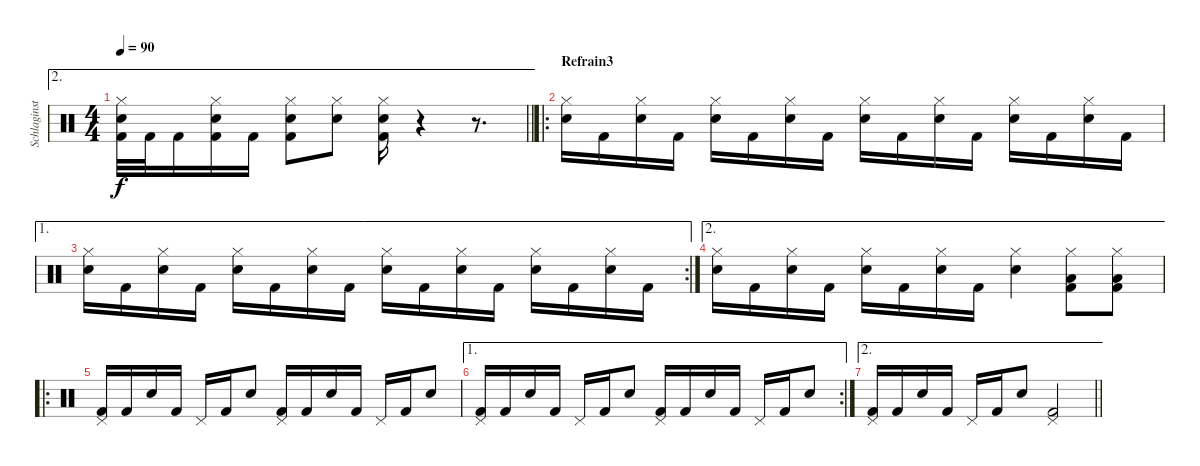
\track ("Schlaginstrumente - Auswahl" "Schlaginst") {instrument percussion}
\staff {score}
\articulation defaults
\ae 2
\ts (4 4)
\tempo 90
\clef neutral
\barLineRight lightlight
\ks c
("Hi-Hat (closed)" "Snare (hit) 2" "Kick (hit) 2").32{dy f} "Kick (hit) 2".32 "Kick (hit) 2".16 ("Hi-Hat (closed)" "Snare (hit) 2" "Kick (hit) 2").16 "Kick (hit) 2".16 ("Hi-Hat (closed)" "Snare (hit) 2" "Kick (hit) 2").8 ("Hi-Hat (closed)" "Snare (hit) 2").8 ("Hi-Hat (closed)" "Snare (hit) 2" "Kick (hit) 2").16 r.4 r.8{d} |
\ro
\section ("" "Refrain3")
("Hi-Hat (closed)" "Snare (hit) 2").16 "Kick (hit) 2".16 ("Hi-Hat (closed)" "Snare (hit) 2").16 "Kick (hit) 2".16 ("Hi-Hat (closed)" "Snare (hit) 2").16 "Kick (hit) 2".16 ("Hi-Hat (closed)" "Snare (hit) 2").16 "Kick (hit) 2".16 ("Hi-Hat (closed)" "Snare (hit) 2").16 "Kick (hit) 2".16 ("Hi-Hat (closed)" "Snare (hit) 2").16 "Kick (hit) 2".16 ("Hi-Hat (closed)" "Snare (hit) 2").16 "Kick (hit) 2".16 ("Hi-Hat (closed)" "Snare (hit) 2").16 "Kick (hit) 2".16 |
\ae 1
\rc 2
("Hi-Hat (closed)" "Snare (hit) 2").16 "Kick (hit) 2".16 ("Hi-Hat (closed)" "Snare (hit) 2").16 "Kick (hit) 2".16 ("Hi-Hat (closed)" "Snare (hit) 2").16 "Kick (hit) 2".16 ("Hi-Hat (closed)" "Snare (hit) 2").16 "Kick (hit) 2".16 ("Hi-Hat (closed)" "Snare (hit) 2").16 "Kick (hit) 2".16 ("Hi-Hat (closed)" "Snare (hit) 2").16 "Kick (hit) 2".16 ("Hi-Hat (closed)" "Snare (hit) 2").16 "Kick (hit) 2".16 ("Hi-Hat (closed)" "Snare (hit) 2").16 "Kick (hit) 2".16 |
\ae 2
("Hi-Hat (closed)" "Snare (hit) 2").16 "Kick (hit) 2".16 ("Hi-Hat (closed)" "Snare (hit) 2").16 "Kick (hit) 2".16 ("Hi-Hat (closed)" "Snare (hit) 2").16 "Kick (hit) 2".16 ("Hi-Hat (closed)" "Snare (hit) 2").16 "Kick (hit) 2".16 ("Hi-Hat (closed)" "Snare (hit) 2").4 ("Hi-Hat (closed)" "Low Floor Tom (hit)" "Kick (hit) 2").8 ("Hi-Hat (closed)" "Low Floor Tom (hit)" "Kick (hit) 2").8 |
\ro
("Pedal Hi-Hat (hit)" "Kick (hit) 2").16 "Kick (hit) 2".16 "Snare (hit) 2".16 "Kick (hit) 2".16 "Pedal Hi-Hat (hit)".16 "Kick (hit) 2".16 "Snare (hit) 2".8 ("Pedal Hi-Hat (hit)" "Kick (hit) 2").16 "Kick (hit) 2".16 "Snare (hit) 2".16 "Kick (hit) 2".16 "Pedal Hi-Hat (hit)".16 "Kick (hit) 2".16 "Snare (hit) 2".8 |
\ae 1
\rc 2
("Pedal Hi-Hat (hit)" "Kick (hit) 2").16 "Kick (hit) 2".16 "Snare (hit) 2".16 "Kick (hit) 2".16 "Pedal Hi-Hat (hit)".16 "Kick (hit) 2".16 "Snare (hit) 2".8 ("Pedal Hi-Hat (hit)" "Kick (hit) 2").16 "Kick (hit) 2".16 "Snare (hit) 2".16 "Kick (hit) 2".16 "Pedal Hi-Hat (hit)".16 "Kick (hit) 2".16 "Snare (hit) 2".8 |
\ae 2
\barLineRight lightlight
("Pedal Hi-Hat (hit)" "Kick (hit) 2").16 "Kick (hit) 2".16 "Snare (hit) 2".16 "Kick (hit) 2".16 "Pedal Hi-Hat (hit)".16 "Kick (hit) 2".16 "Snare (hit) 2".8 ("Pedal Hi-Hat (hit)" "Kick (hit) 2").2
